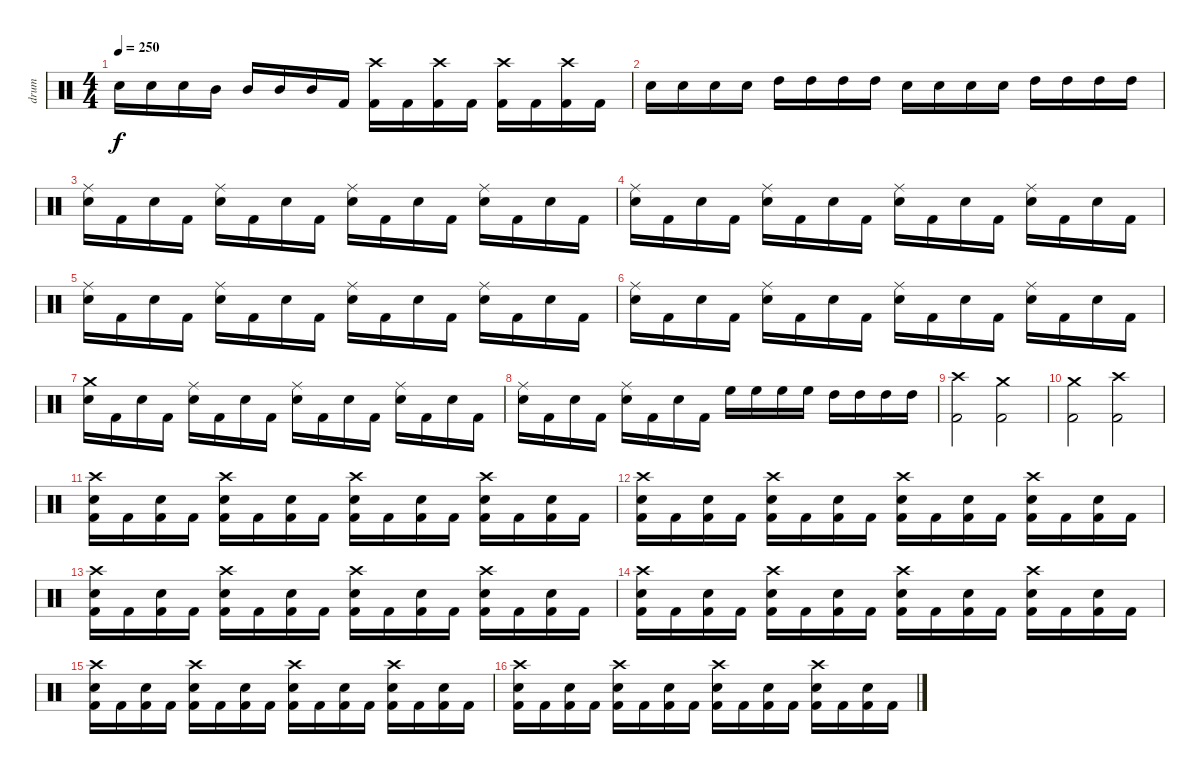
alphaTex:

\track ("drum" "drum") {instrument percussion}
\staff {score}
\articulation defaults
\ts (4 4)
\tempo 250
\clef neutral
\ks c "Snare (hit) 2".16{dy f} "Snare (hit) 2".16 "Snare (hit) 2".16 "Mid Tom (hit)".16 "Mid Tom (hit)".16 "Mid Tom (hit)".16 "Mid Tom (hit)".16 "Kick (hit) 2".16
("Crash high (hit)" "Kick (hit) 2").16 "Kick (hit) 2".16 ("Crash high (hit)" "Kick (hit) 2").16 "Kick (hit) 2".16 ("Crash high (hit)" "Kick (hit) 2").16 "Kick (hit) 2".16 ("Crash high (hit)" "Kick (hit) 2").16 "Kick (hit) 2".16 |
"Snare (hit) 2".16 "Snare (hit) 2".16 "Snare (hit) 2".16 "Snare (hit) 2".16 "High Tom (hit)".16 "High Tom (hit)".16 "High Tom (hit)".16 "High Tom (hit)".16 "Snare (hit) 2".16 "Snare (hit) 2".16 "Snare (hit) 2".16 "Snare (hit) 2".16 "High Tom (hit)".16 "High Tom (hit)".16 "High Tom (hit)".16 "High Tom (hit)".16 |
("Ride (middle)" "Snare (hit) 2").16 "Kick (hit) 2".16 "Snare (hit) 2".16 "Kick (hit) 2".16 ("Ride (middle)" "Snare (hit) 2").16 "Kick (hit) 2".16 "Snare (hit) 2".16 "Kick (hit) 2".16 ("Ride (middle)" "Snare (hit) 2").16 "Kick (hit) 2".16 "Snare (hit) 2".16 "Kick (hit) 2".16 ("Ride (middle)" "Snare (hit) 2").16 "Kick (hit) 2".16 "Snare (hit) 2".16 "Kick (hit) 2".16 |
("Ride (middle)" "Snare (hit) 2").16 "Kick (hit) 2".16 "Snare (hit) 2".16 "Kick (hit) 2".16 ("Ride (middle)" "Snare (hit) 2").16 "Kick (hit) 2".16 "Snare (hit) 2".16 "Kick (hit) 2".16 ("Ride (middle)" "Snare (hit) 2").16 "Kick (hit) 2".16 "Snare (hit) 2".16 "Kick (hit) 2".16 ("Ride (middle)" "Snare (hit) 2").16 "Kick (hit) 2".16 "Snare (hit) 2".16 "Kick (hit) 2".16 |
("Ride (middle)" "Snare (hit) 2").16 "Kick (hit) 2".16 "Snare (hit) 2".16 "Kick (hit) 2".16 ("Ride (middle)" "Snare (hit) 2").16 "Kick (hit) 2".16 "Snare (hit) 2".16 "Kick (hit) 2".16 ("Ride (middle)" "Snare (hit) 2").16 "Kick (hit) 2".16 "Snare (hit) 2".16 "Kick (hit) 2".16 ("Ride (middle)" "Snare (hit) 2").16 "Kick (hit) 2".16 "Snare (hit) 2".16 "Kick (hit) 2".16 |
("Ride (middle)" "Snare (hit) 2").16 "Kick (hit) 2".16 "Snare (hit) 2".16 "Kick (hit) 2".16 ("Ride (middle)" "Snare (hit) 2").16 "Kick (hit) 2".16 "Snare (hit) 2".16 "Kick (hit) 2".16 ("Ride (middle)" "Snare (hit) 2").16 "Kick (hit) 2".16 "Snare (hit) 2".16 "Kick (hit) 2".16 ("Ride (middle)" "Snare (hit) 2").16 "Kick (hit) 2".16 "Snare (hit) 2".16 "Kick (hit) 2".16 |
("Crash medium (hit)" "Snare (hit) 2").16 "Kick (hit) 2".16 "Snare (hit) 2".16 "Kick (hit) 2".16 ("Ride (middle)" "Snare (hit) 2").16 "Kick (hit) 2".16 "Snare (hit) 2".16 "Kick (hit) 2".16 ("Ride (middle)" "Snare (hit) 2").16 "Kick (hit) 2".16 "Snare (hit) 2".16 "Kick (hit) 2".16 ("Ride (middle)" "Snare (hit) 2").16 "Kick (hit) 2".16 "Snare (hit) 2".16 "Kick (hit) 2".16 |
("Ride (middle)" "Snare (hit) 2").16 "Kick (hit) 2".16 "Snare (hit) 2".16 "Kick (hit) 2".16 ("Ride (middle)" "Snare (hit) 2").16 "Kick (hit) 2".16 "Snare (hit) 2".16 "Kick (hit) 2".16 "High Floor Tom (hit)".16 "High Floor Tom (hit)".16 "High Floor Tom (hit)".16 "High Floor Tom (hit)".16 "High Tom (hit)".16 "High Tom (hit)".16 "High Tom (hit)".16 "High Tom (hit)".16 |
("Crash high (hit)" "Kick (hit) 2").2 ("Crash medium (hit)" "Kick (hit) 2").2 |
("Crash medium (hit)" "Kick (hit) 2").2 ("Crash high (hit)" "Kick (hit) 2").2 |
("Crash high (hit)" "Snare (hit) 2" "Kick (hit) 2").16 "Kick (hit) 2".16 ("Snare (hit) 2" "Kick (hit) 2").16 "Kick (hit) 2".16 ("Crash high (hit)" "Snare (hit) 2" "Kick (hit) 2").16 "Kick (hit) 2".16 ("Snare (hit) 2" "Kick (hit) 2").16 "Kick (hit) 2".16 ("Crash high (hit)" "Snare (hit) 2" "Kick (hit) 2").16 "Kick (hit) 2".16 ("Snare (hit) 2" "Kick (hit) 2").16 "Kick (hit) 2".16 ("Crash high (hit)" "Snare (hit) 2" "Kick (hit) 2").16 "Kick (hit) 2".16 ("Snare (hit) 2" "Kick (hit) 2").16 "Kick (hit) 2".16 |
("Crash high (hit)" "Snare (hit) 2" "Kick (hit) 2").16 "Kick (hit) 2".16 ("Snare (hit) 2" "Kick (hit) 2").16 "Kick (hit) 2".16 ("Crash high (hit)" "Snare (hit) 2" "Kick (hit) 2").16 "Kick (hit) 2".16 ("Snare (hit) 2" "Kick (hit) 2").16 "Kick (hit) 2".16 ("Crash high (hit)" "Snare (hit) 2" "Kick (hit) 2").16 "Kick (hit) 2".16 ("Snare (hit) 2" "Kick (hit) 2").16 "Kick (hit) 2".16 ("Crash high (hit)" "Snare (hit) 2" "Kick (hit) 2").16 "Kick (hit) 2".16 ("Snare (hit) 2" "Kick (hit) 2").16 "Kick (hit) 2".16 |
("Crash high (hit)" "Snare (hit) 2" "Kick (hit) 2").16 "Kick (hit) 2".16 ("Snare (hit) 2" "Kick (hit) 2").16 "Kick (hit) 2".16 ("Crash high (hit)" "Snare (hit) 2" "Kick (hit) 2").16 "Kick (hit) 2".16 ("Snare (hit) 2" "Kick (hit) 2").16 "Kick (hit) 2".16 ("Crash high (hit)" "Snare (hit) 2" "Kick (hit) 2").16 "Kick (hit) 2".16 ("Snare (hit) 2" "Kick (hit) 2").16 "Kick (hit) 2".16 ("Crash high (hit)" "Snare (hit) 2" "Kick (hit) 2").16 "Kick (hit) 2".16 ("Snare (hit) 2" "Kick (hit) 2").16 "Kick (hit) 2".16 |
("Crash high (hit)" "Snare (hit) 2" "Kick (hit) 2").16 "Kick (hit) 2".16 ("Snare (hit) 2" "Kick (hit) 2").16 "Kick (hit) 2".16 ("Crash high (hit)" "Snare (hit) 2" "Kick (hit) 2").16 "Kick (hit) 2".16 ("Snare (hit) 2" "Kick (hit) 2").16 "Kick (hit) 2".16 ("Crash high (hit)" "Snare (hit) 2" "Kick (hit) 2").16 "Kick (hit) 2".16 ("Snare (hit) 2" "Kick (hit) 2").16 "Kick (hit) 2".16 ("Crash high (hit)" "Snare (hit) 2" "Kick (hit) 2").16 "Kick (hit) 2".16 ("Snare (hit) 2" "Kick (hit) 2").16 "Kick (hit) 2".16 |
("Crash high (hit)" "Snare (hit) 2" "Kick (hit) 2").16 "Kick (hit) 2".16 ("Snare (hit) 2" "Kick (hit) 2").16 "Kick (hit) 2".16 ("Crash high (hit)" "Snare (hit) 2" "Kick (hit) 2").16 "Kick (hit) 2".16 ("Snare (hit) 2" "Kick (hit) 2").16 "Kick (hit) 2".16 ("Crash high (hit)" "Snare (hit) 2" "Kick (hit) 2").16 "Kick (hit) 2".16 ("Snare (hit) 2" "Kick (hit) 2").16 "Kick (hit) 2".16 ("Crash high (hit)" "Snare (hit) 2" "Kick (hit) 2").16 "Kick (hit) 2".16 ("Snare (hit) 2" "Kick (hit) 2").16 "Kick (hit) 2".16 |
("Crash high (hit)" "Snare (hit) 2" "Kick (hit) 2").16 "Kick (hit) 2".16 ("Snare (hit) 2" "Kick (hit) 2").16 "Kick (hit) 2".16 ("Crash high (hit)" "Snare (hit) 2" "Kick (hit) 2").16 "Kick (hit) 2".16 ("Snare (hit) 2" "Kick (hit) 2").16 "Kick (hit) 2".16 ("Crash high (hit)" "Snare (hit) 2" "Kick (hit) 2").16 "Kick (hit) 2".16 ("Snare (hit) 2" "Kick (hit) 2").16 "Kick (hit) 2".16 ("Crash high (hit)" "Snare (hit) 2" "Kick (hit) 2").16 "Kick (hit) 2".16 ("Snare (hit) 2" "Kick (hit) 2").16 "Kick (hit) 2".16
